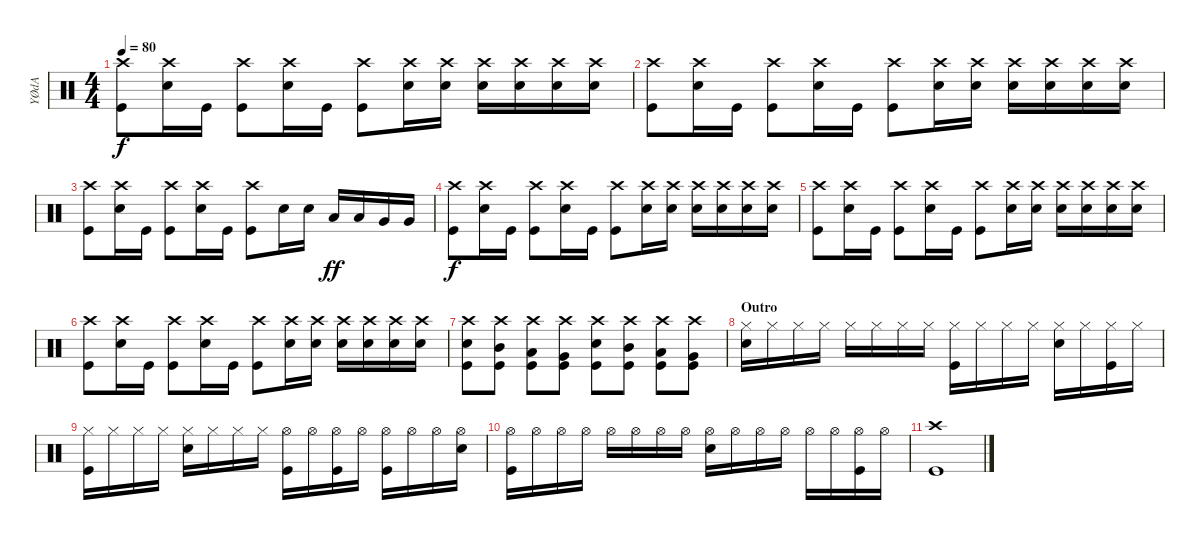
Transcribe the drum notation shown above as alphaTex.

\track ("YØdA" "YØdA") {instrument percussion}
\staff {score}
\articulation defaults
\ts (4 4)
\tempo 80
\clef neutral
\ks c
("Crash high (hit)" "Kick (hit)").8{dy f} ("Crash high (hit)" "Electric Snare (hit)").16 "Kick (hit)".16 ("Crash high (hit)" "Kick (hit)").8 ("Crash high (hit)" "Electric Snare (hit)").16 "Kick (hit)".16 ("Crash high (hit)" "Kick (hit)").8 ("Crash high (hit)" "Electric Snare (hit)").16 ("Crash high (hit)" "Electric Snare (hit)").16 ("Crash high (hit)" "Electric Snare (hit)").16 ("Crash high (hit)" "Electric Snare (hit)").16 ("Crash high (hit)" "Electric Snare (hit)").16 ("Crash high (hit)" "Electric Snare (hit)").16 |
("Crash high (hit)" "Kick (hit)").8 ("Crash high (hit)" "Electric Snare (hit)").16 "Kick (hit)".16 ("Crash high (hit)" "Kick (hit)").8 ("Crash high (hit)" "Electric Snare (hit)").16 "Kick (hit)".16 ("Crash high (hit)" "Kick (hit)").8 ("Crash high (hit)" "Electric Snare (hit)").16 ("Crash high (hit)" "Electric Snare (hit)").16 ("Crash high (hit)" "Electric Snare (hit)").16 ("Crash high (hit)" "Electric Snare (hit)").16 ("Crash high (hit)" "Electric Snare (hit)").16 ("Crash high (hit)" "Electric Snare (hit)").16 |
("Crash high (hit)" "Kick (hit)").8 ("Crash high (hit)" "Electric Snare (hit)").16 "Kick (hit)".16 ("Crash high (hit)" "Kick (hit)").8 ("Crash high (hit)" "Electric Snare (hit)").16 "Kick (hit)".16 ("Crash high (hit)" "Kick (hit)").8 "Electric Snare (hit)".16 "Electric Snare (hit)".16 "Low Tom (hit)".16{dy ff} "Low Tom (hit)".16 "Very Low Tom (hit)".16 "Very Low Tom (hit)".16 |
("Crash high (hit)" "Kick (hit)").8{dy f} ("Crash high (hit)" "Electric Snare (hit)").16 "Kick (hit)".16 ("Crash high (hit)" "Kick (hit)").8 ("Crash high (hit)" "Electric Snare (hit)").16 "Kick (hit)".16 ("Crash high (hit)" "Kick (hit)").8 ("Crash high (hit)" "Electric Snare (hit)").16 ("Crash high (hit)" "Electric Snare (hit)").16 ("Crash high (hit)" "Electric Snare (hit)").16 ("Crash high (hit)" "Electric Snare (hit)").16 ("Crash high (hit)" "Electric Snare (hit)").16 ("Crash high (hit)" "Electric Snare (hit)").16 |
("Crash high (hit)" "Kick (hit)").8 ("Crash high (hit)" "Electric Snare (hit)").16 "Kick (hit)".16 ("Crash high (hit)" "Kick (hit)").8 ("Crash high (hit)" "Electric Snare (hit)").16 "Kick (hit)".16 ("Crash high (hit)" "Kick (hit)").8 ("Crash high (hit)" "Electric Snare (hit)").16 ("Crash high (hit)" "Electric Snare (hit)").16 ("Crash high (hit)" "Electric Snare (hit)").16 ("Crash high (hit)" "Electric Snare (hit)").16 ("Crash high (hit)" "Electric Snare (hit)").16 ("Crash high (hit)" "Electric Snare (hit)").16 |
("Crash high (hit)" "Kick (hit)").8 ("Crash high (hit)" "Electric Snare (hit)").16 "Kick (hit)".16 ("Crash high (hit)" "Kick (hit)").8 ("Crash high (hit)" "Electric Snare (hit)").16 "Kick (hit)".16 ("Crash high (hit)" "Kick (hit)").8 ("Crash high (hit)" "Electric Snare (hit)").16 ("Crash high (hit)" "Electric Snare (hit)").16 ("Crash high (hit)" "Electric Snare (hit)").16 ("Crash high (hit)" "Electric Snare (hit)").16 ("Crash high (hit)" "Electric Snare (hit)").16 ("Crash high (hit)" "Electric Snare (hit)").16 |
("Crash high (hit)" "Electric Snare (hit)" "Kick (hit)").8 ("Crash high (hit)" "Mid Tom (hit)" "Kick (hit)").8 ("Crash high (hit)" "Low Tom (hit)" "Kick (hit)").8 ("Crash high (hit)" "Very Low Tom (hit)" "Kick (hit)").8 ("Crash high (hit)" "Electric Snare (hit)" "Kick (hit)").8 ("Crash high (hit)" "Mid Tom (hit)" "Kick (hit)").8 ("Crash high (hit)" "Low Tom (hit)" "Kick (hit)").8 ("Crash high (hit)" "Very Low Tom (hit)" "Kick (hit)").8 |
\section ("" "Outro")
("Hi-Hat (closed)" "Electric Snare (hit)").16 "Hi-Hat (closed)".16 "Hi-Hat (closed)".16 "Hi-Hat (closed)".16 "Hi-Hat (closed)".16 "Hi-Hat (closed)".16 "Hi-Hat (closed)".16 "Hi-Hat (closed)".16 ("Hi-Hat (closed)" "Kick (hit)").16 "Hi-Hat (closed)".16 "Hi-Hat (closed)".16 "Hi-Hat (closed)".16 ("Hi-Hat (closed)" "Electric Snare (hit)").16 "Hi-Hat (closed)".16 ("Hi-Hat (closed)" "Kick (hit)").16 "Hi-Hat (closed)".16 |
("Hi-Hat (closed)" "Kick (hit)").16 "Hi-Hat (closed)".16 "Hi-Hat (closed)".16 "Hi-Hat (closed)".16 ("Hi-Hat (closed)" "Electric Snare (hit)").16 "Hi-Hat (closed)".16 "Hi-Hat (closed)".16 "Hi-Hat (closed)".16 ("Hi-Hat (open)" "Kick (hit)").16 "Hi-Hat (open)".16 ("Hi-Hat (open)" "Kick (hit)").16 "Hi-Hat (open)".16 ("Hi-Hat (open)" "Kick (hit)").16 "Hi-Hat (open)".16 "Hi-Hat (open)".16 ("Hi-Hat (open)" "Electric Snare (hit)").16 |
("Hi-Hat (open)" "Kick (hit)").16 "Hi-Hat (open)".16 "Hi-Hat (open)".16 "Hi-Hat (open)".16 "Hi-Hat (open)".16 "Hi-Hat (open)".16 "Hi-Hat (open)".16 "Hi-Hat (open)".16 ("Hi-Hat (open)" "Electric Snare (hit)").16 "Hi-Hat (open)".16 "Hi-Hat (open)".16 "Hi-Hat (open)".16 "Hi-Hat (open)".16 "Hi-Hat (open)".16 ("Hi-Hat (open)" "Kick (hit)").16 "Hi-Hat (open)".16 |
("Crash high (hit)" "Kick (hit)").1
